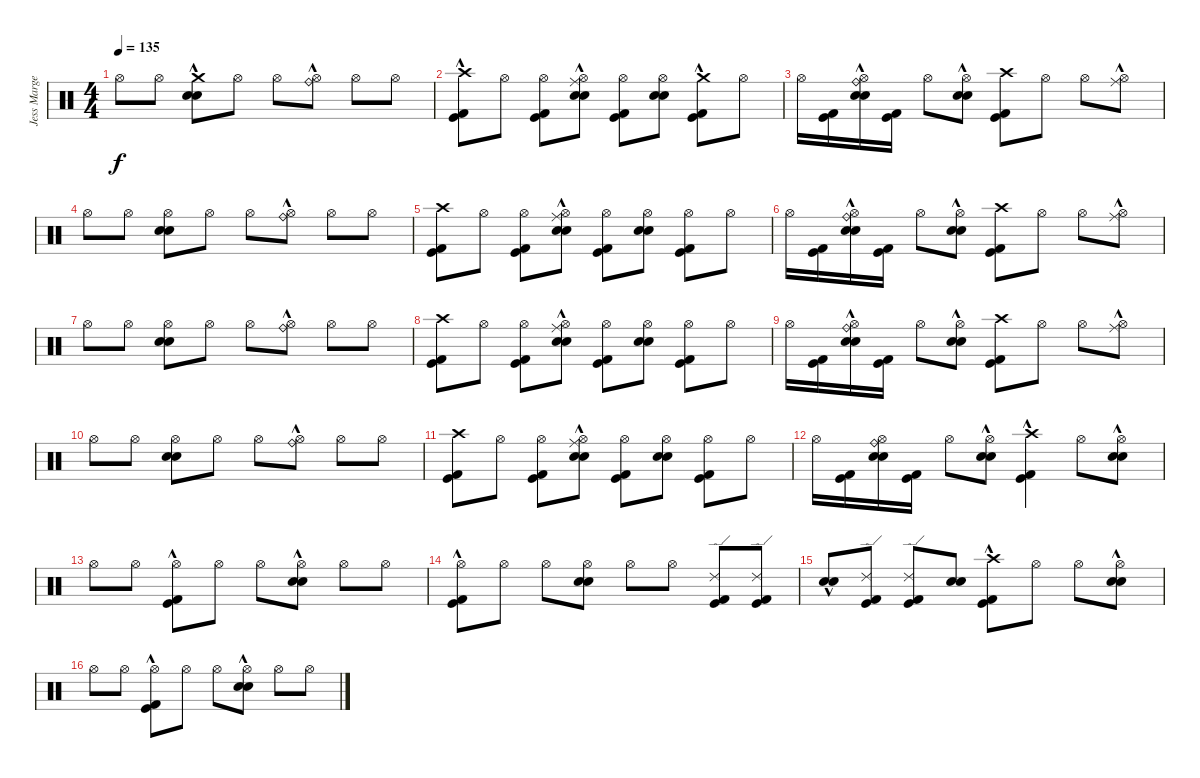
\track ("Jess Margera" "Jess Marge") {instrument percussion}
\staff {score}
\articulation defaults
\ts (4 4)
\tempo 135
\clef neutral
\ks c "Hi-Hat (open)".8{dy f} "Hi-Hat (open)".8
("Electric Snare (hit)" "Electric Snare (hit)" "Crash medium (hit)"{hac}).8 "Hi-Hat (open)".8 "Hi-Hat (open)".8 ("Hi-Hat (open)" "Ride (bell)"{hac}).8 "Hi-Hat (open)".8 "Hi-Hat (open)".8 |
("Kick (hit)" "Kick (hit) 2" "Crash high (hit)"{hac}).8 "Hi-Hat (open)".8 ("Kick (hit)" "Kick (hit) 2" "Hi-Hat (open)").8 ("Electric Snare (hit)" "Electric Snare (hit)" "Hi-Hat (open)" "Ride (middle)"{hac}).8 ("Kick (hit)" "Kick (hit) 2" "Hi-Hat (open)").8 ("Electric Snare (hit)" "Electric Snare (hit)" "Hi-Hat (open)").8 ("Kick (hit)" "Kick (hit) 2" "Crash medium (hit)"{hac}).8 "Hi-Hat (open)".8 |
"Hi-Hat (open)".16 ("Kick (hit)" "Kick (hit) 2").16 ("Electric Snare (hit)" "Electric Snare (hit)" "Hi-Hat (open)" "Ride (bell)"{hac}).16 ("Kick (hit)" "Kick (hit) 2").16 "Hi-Hat (open)".8 ("Electric Snare (hit)"{hac} "Electric Snare (hit)"{hac} "Hi-Hat (open)").8 ("Kick (hit)" "Kick (hit) 2" "Crash high (hit)").8 "Hi-Hat (open)".8 "Hi-Hat (open)".8 ("Hi-Hat (open)" "Ride (middle)"{hac}).8 |
"Hi-Hat (open)".8 "Hi-Hat (open)".8 ("Electric Snare (hit)" "Electric Snare (hit)" "Hi-Hat (open)").8 "Hi-Hat (open)".8 "Hi-Hat (open)".8 ("Hi-Hat (open)" "Ride (bell)"{hac}).8 "Hi-Hat (open)".8 "Hi-Hat (open)".8 |
("Kick (hit)" "Kick (hit) 2" "Crash high (hit)").8 "Hi-Hat (open)".8 ("Kick (hit)" "Kick (hit) 2" "Hi-Hat (open)").8 ("Electric Snare (hit)" "Electric Snare (hit)" "Hi-Hat (open)" "Ride (middle)"{hac}).8 ("Kick (hit)" "Kick (hit) 2" "Hi-Hat (open)").8 ("Electric Snare (hit)" "Electric Snare (hit)" "Hi-Hat (open)").8 ("Kick (hit)" "Kick (hit) 2" "Hi-Hat (open)").8 "Hi-Hat (open)".8 |
"Hi-Hat (open)".16 ("Kick (hit)" "Kick (hit) 2").16 ("Electric Snare (hit)" "Electric Snare (hit)" "Hi-Hat (open)" "Ride (bell)"{hac}).16 ("Kick (hit)" "Kick (hit) 2").16 "Hi-Hat (open)".8 ("Electric Snare (hit)"{hac} "Electric Snare (hit)"{hac} "Hi-Hat (open)").8 ("Kick (hit)" "Kick (hit) 2" "Crash high (hit)").8 "Hi-Hat (open)".8 "Hi-Hat (open)".8 ("Hi-Hat (open)" "Ride (middle)"{hac}).8 |
"Hi-Hat (open)".8 "Hi-Hat (open)".8 ("Electric Snare (hit)" "Electric Snare (hit)" "Hi-Hat (open)").8 "Hi-Hat (open)".8 "Hi-Hat (open)".8 ("Hi-Hat (open)" "Ride (bell)"{hac}).8 "Hi-Hat (open)".8 "Hi-Hat (open)".8 |
("Kick (hit)" "Kick (hit) 2" "Crash high (hit)").8 "Hi-Hat (open)".8 ("Kick (hit)" "Kick (hit) 2" "Hi-Hat (open)").8 ("Electric Snare (hit)" "Electric Snare (hit)" "Hi-Hat (open)" "Ride (middle)"{hac}).8 ("Kick (hit)" "Kick (hit) 2" "Hi-Hat (open)").8 ("Electric Snare (hit)" "Electric Snare (hit)" "Hi-Hat (open)").8 ("Kick (hit)" "Kick (hit) 2" "Hi-Hat (open)").8 "Hi-Hat (open)".8 |
"Hi-Hat (open)".16 ("Kick (hit)" "Kick (hit) 2").16 ("Electric Snare (hit)" "Electric Snare (hit)" "Hi-Hat (open)" "Ride (bell)"{hac}).16 ("Kick (hit)" "Kick (hit) 2").16 "Hi-Hat (open)".8 ("Electric Snare (hit)"{hac} "Electric Snare (hit)"{hac} "Hi-Hat (open)").8 ("Kick (hit)" "Kick (hit) 2" "Crash high (hit)").8 "Hi-Hat (open)".8 "Hi-Hat (open)".8 ("Hi-Hat (open)" "Ride (middle)"{hac}).8 |
"Hi-Hat (open)".8 "Hi-Hat (open)".8 ("Electric Snare (hit)" "Electric Snare (hit)" "Hi-Hat (open)").8 "Hi-Hat (open)".8 "Hi-Hat (open)".8 ("Hi-Hat (open)" "Ride (bell)"{hac}).8 "Hi-Hat (open)".8 "Hi-Hat (open)".8 |
("Kick (hit)" "Kick (hit) 2" "Crash high (hit)").8 "Hi-Hat (open)".8 ("Kick (hit)" "Kick (hit) 2" "Hi-Hat (open)").8 ("Electric Snare (hit)" "Electric Snare (hit)" "Hi-Hat (open)" "Ride (middle)"{hac}).8 ("Kick (hit)" "Kick (hit) 2" "Hi-Hat (open)").8 ("Electric Snare (hit)" "Electric Snare (hit)" "Hi-Hat (open)").8 ("Kick (hit)" "Kick (hit) 2" "Hi-Hat (open)").8 "Hi-Hat (open)".8 |
"Hi-Hat (open)".16 ("Kick (hit)" "Kick (hit) 2").16 ("Electric Snare (hit)" "Electric Snare (hit)" "Hi-Hat (open)" "Ride (bell)").16 ("Kick (hit)" "Kick (hit) 2").16 "Hi-Hat (open)".8 ("Electric Snare (hit)" "Electric Snare (hit)" "Hi-Hat (open)"{hac}).8 ("Kick (hit)"{hac} "Kick (hit) 2"{hac} "Crash high (hit)").4 "Hi-Hat (open)".8 ("Electric Snare (hit)"{hac} "Electric Snare (hit)"{hac} "Hi-Hat (open)").8 |
"Hi-Hat (open)".8 "Hi-Hat (open)".8 ("Kick (hit)"{hac} "Kick (hit) 2"{hac} "Hi-Hat (open)").8 "Hi-Hat (open)".8 "Hi-Hat (open)".8 ("Electric Snare (hit)"{hac} "Electric Snare (hit)"{hac} "Hi-Hat (open)").8 "Hi-Hat (open)".8 "Hi-Hat (open)".8 |
("Kick (hit)"{hac} "Kick (hit) 2"{hac} "Hi-Hat (open)").8 "Hi-Hat (open)".8 "Hi-Hat (open)".8 ("Electric Snare (hit)" "Electric Snare (hit)" "Hi-Hat (open)").8 "Hi-Hat (open)".8 "Hi-Hat (open)".8 ("Kick (hit)" "Kick (hit) 2" "Ride (edge) 2").8 ("Kick (hit)" "Kick (hit) 2" "Ride (edge) 2").8 |
("Electric Snare (hit)"{hac} "Electric Snare (hit)"{hac}).8 ("Kick (hit)" "Kick (hit) 2" "Ride (edge) 2").8 ("Kick (hit)" "Kick (hit) 2" "Ride (edge) 2").8 ("Electric Snare (hit)" "Electric Snare (hit)").8 ("Kick (hit)"{hac} "Kick (hit) 2"{hac} "Crash high (hit)").8 "Hi-Hat (open)".8 "Hi-Hat (open)".8 ("Electric Snare (hit)"{hac} "Electric Snare (hit)"{hac} "Hi-Hat (open)").8 |
"Hi-Hat (open)".8 "Hi-Hat (open)".8 ("Kick (hit)"{hac} "Kick (hit) 2"{hac} "Hi-Hat (open)").8 "Hi-Hat (open)".8 "Hi-Hat (open)".8 ("Electric Snare (hit)"{hac} "Electric Snare (hit)"{hac} "Hi-Hat (open)").8 "Hi-Hat (open)".8 "Hi-Hat (open)".8
